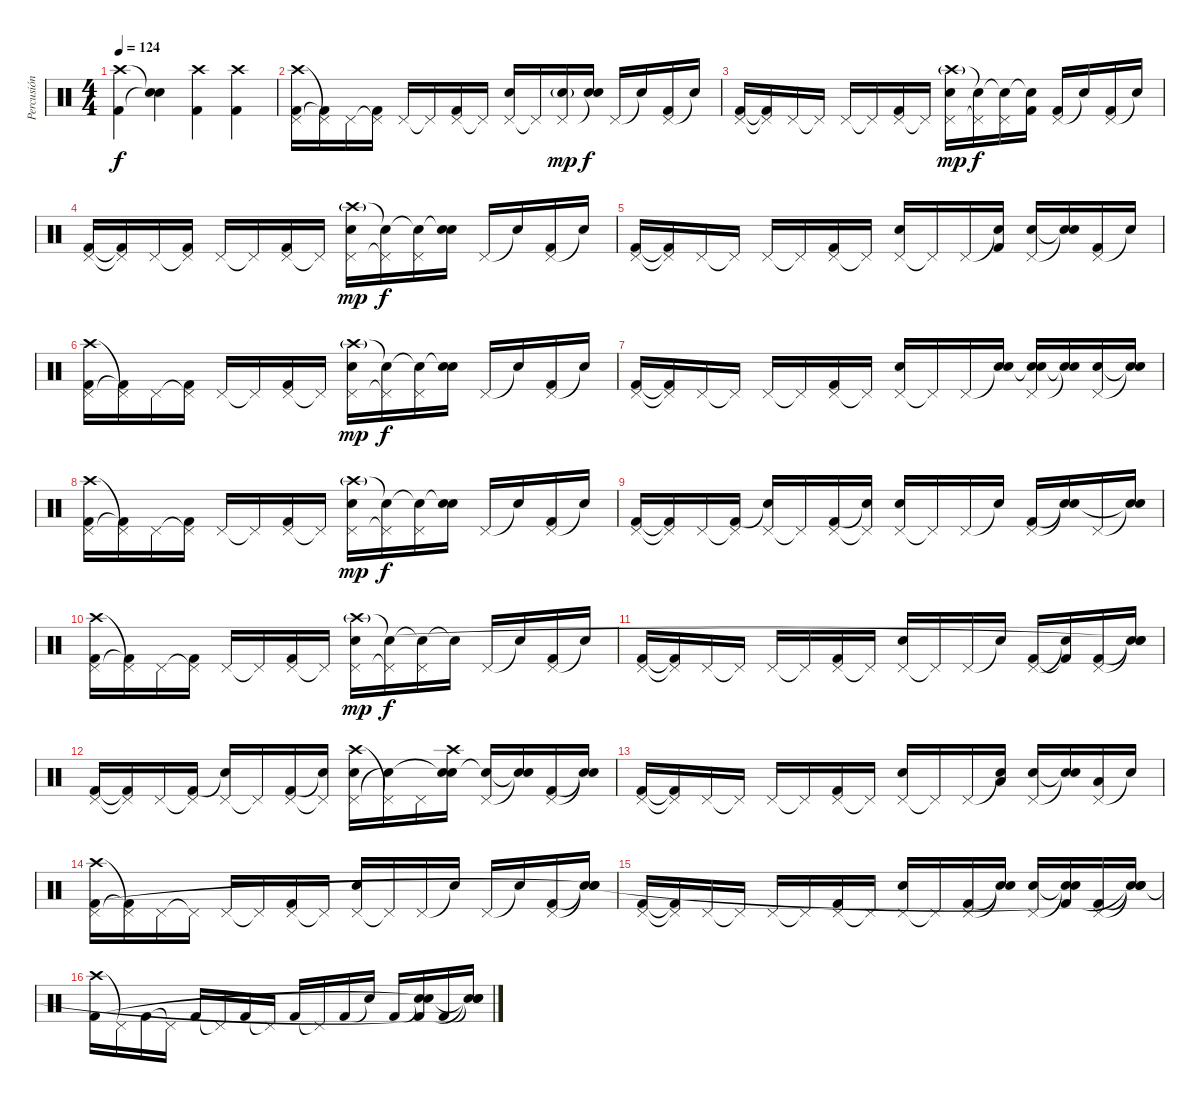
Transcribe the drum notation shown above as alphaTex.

\track ("Percusión" "Percusión") {instrument percussion}
\staff {score}
\articulation defaults
\ts (4 4)
\tempo 124
\clef neutral
\ks c
("Crash high (hit)" "Kick (hit) 2").4{dy f} ("Snare (hit)"{t} "Snare (hit)"{t}).4 ("Crash high (hit)" "Kick (hit) 2").4 ("Crash high (hit)" "Kick (hit) 2").4 |
("Crash high (hit)" "Pedal Hi-Hat (hit)" "Kick (hit) 2").16 ("Pedal Hi-Hat (hit)"{t} "Kick (hit) 2"{t}).16 "Pedal Hi-Hat (hit)".16 ("Pedal Hi-Hat (hit)"{t} "Kick (hit) 2").16 "Pedal Hi-Hat (hit)".16 "Pedal Hi-Hat (hit)"{t}.16 ("Pedal Hi-Hat (hit)" "Kick (hit) 2").16 "Pedal Hi-Hat (hit)"{t}.16 ("Pedal Hi-Hat (hit)" "Snare (hit) 2").16 "Pedal Hi-Hat (hit)"{t}.16 ("Pedal Hi-Hat (hit)" "Snare (hit) 2"{g}).16{dy mp} ("Snare (hit)"{t} "Snare (hit) 2").16{dy f} "Pedal Hi-Hat (hit)".16 "Snare (hit)"{t}.16 ("Pedal Hi-Hat (hit)" "Kick (hit) 2").16 "Snare (hit)"{t}.16 |
("Pedal Hi-Hat (hit)" "Kick (hit) 2").16 ("Pedal Hi-Hat (hit)"{t} "Kick (hit) 2"{t}).16 "Pedal Hi-Hat (hit)".16 "Pedal Hi-Hat (hit)"{t}.16 "Pedal Hi-Hat (hit)".16 "Pedal Hi-Hat (hit)"{t}.16 ("Pedal Hi-Hat (hit)" "Kick (hit) 2").16 "Pedal Hi-Hat (hit)"{t}.16 ("Crash high (hit)"{g} "Pedal Hi-Hat (hit)" "Snare (hit) 2").16{dy mp} ("Snare (hit)"{t} "Pedal Hi-Hat (hit)"{t}).16{dy f} ("Snare (hit)"{t} "Pedal Hi-Hat (hit)").16 ("Snare (hit)"{t} "Kick (hit) 2").16 ("Pedal Hi-Hat (hit)" "Kick (hit) 2").16 "Snare (hit)"{t}.16 ("Pedal Hi-Hat (hit)" "Kick (hit) 2").16 "Snare (hit)"{t}.16 |
("Pedal Hi-Hat (hit)" "Kick (hit) 2").16 ("Pedal Hi-Hat (hit)"{t} "Kick (hit) 2"{t}).16 "Pedal Hi-Hat (hit)".16 ("Pedal Hi-Hat (hit)"{t} "Kick (hit) 2").16 "Pedal Hi-Hat (hit)".16 "Pedal Hi-Hat (hit)"{t}.16 ("Pedal Hi-Hat (hit)" "Kick (hit) 2").16 "Pedal Hi-Hat (hit)"{t}.16 ("Crash high (hit)"{g} "Pedal Hi-Hat (hit)" "Snare (hit) 2").16{dy mp} ("Snare (hit)"{t} "Pedal Hi-Hat (hit)"{t}).16{dy f} ("Snare (hit)"{t} "Pedal Hi-Hat (hit)").16 ("Snare (hit)"{t} "Snare (hit) 2").16 "Pedal Hi-Hat (hit)".16 "Snare (hit)"{t}.16 ("Pedal Hi-Hat (hit)" "Kick (hit) 2").16 "Snare (hit)"{t}.16 |
("Pedal Hi-Hat (hit)" "Kick (hit) 2").16 ("Pedal Hi-Hat (hit)"{t} "Kick (hit) 2"{t}).16 "Pedal Hi-Hat (hit)".16 "Pedal Hi-Hat (hit)"{t}.16 "Pedal Hi-Hat (hit)".16 "Pedal Hi-Hat (hit)"{t}.16 ("Pedal Hi-Hat (hit)" "Kick (hit) 2").16 "Pedal Hi-Hat (hit)"{t}.16 ("Pedal Hi-Hat (hit)" "Snare (hit) 2").16 "Pedal Hi-Hat (hit)"{t}.16 "Pedal Hi-Hat (hit)".16 ("Snare (hit)"{t} "Kick (hit) 2").16 ("Pedal Hi-Hat (hit)" "Snare (hit) 2").16 ("Snare (hit)"{t} "Snare (hit) 2"{t}).16 ("Pedal Hi-Hat (hit)" "Kick (hit) 2").16 "Snare (hit)"{t}.16 |
("Crash high (hit)" "Pedal Hi-Hat (hit)" "Kick (hit) 2").16 ("Pedal Hi-Hat (hit)"{t} "Kick (hit) 2"{t}).16 "Pedal Hi-Hat (hit)".16 ("Pedal Hi-Hat (hit)"{t} "Kick (hit) 2").16 "Pedal Hi-Hat (hit)".16 "Pedal Hi-Hat (hit)"{t}.16 ("Pedal Hi-Hat (hit)" "Kick (hit) 2").16 "Pedal Hi-Hat (hit)"{t}.16 ("Crash high (hit)"{g} "Pedal Hi-Hat (hit)" "Snare (hit) 2").16{dy mp} ("Snare (hit)"{t} "Pedal Hi-Hat (hit)"{t}).16{dy f} ("Snare (hit)"{t} "Pedal Hi-Hat (hit)").16 ("Snare (hit)"{t} "Snare (hit) 2").16 "Pedal Hi-Hat (hit)".16 "Snare (hit)"{t}.16 ("Pedal Hi-Hat (hit)" "Kick (hit) 2").16 "Snare (hit)"{t}.16 |
("Pedal Hi-Hat (hit)" "Kick (hit) 2").16 ("Pedal Hi-Hat (hit)"{t} "Kick (hit) 2"{t}).16 "Pedal Hi-Hat (hit)".16 "Pedal Hi-Hat (hit)"{t}.16 "Pedal Hi-Hat (hit)".16 "Pedal Hi-Hat (hit)"{t}.16 ("Pedal Hi-Hat (hit)" "Kick (hit) 2").16 "Pedal Hi-Hat (hit)"{t}.16 ("Pedal Hi-Hat (hit)" "Snare (hit) 2").16 "Pedal Hi-Hat (hit)"{t}.16 "Pedal Hi-Hat (hit)".16 ("Snare (hit)"{t} "Snare (hit) 2").16 ("Pedal Hi-Hat (hit)" "Snare (hit)"{t} "Snare (hit) 2").16 ("Snare (hit)"{t} "Snare (hit) 2"{t}).16 ("Pedal Hi-Hat (hit)" "Snare (hit) 2").16 ("Snare (hit)"{t} "Snare (hit)"{t}).16 |
("Crash high (hit)" "Pedal Hi-Hat (hit)" "Kick (hit) 2").16 ("Pedal Hi-Hat (hit)"{t} "Kick (hit) 2"{t}).16 "Pedal Hi-Hat (hit)".16 ("Pedal Hi-Hat (hit)"{t} "Kick (hit) 2").16 "Pedal Hi-Hat (hit)".16 "Pedal Hi-Hat (hit)"{t}.16 ("Pedal Hi-Hat (hit)" "Kick (hit) 2").16 "Pedal Hi-Hat (hit)"{t}.16 ("Crash high (hit)"{g} "Pedal Hi-Hat (hit)" "Snare (hit) 2").16{dy mp} ("Snare (hit)"{t} "Pedal Hi-Hat (hit)"{t}).16{dy f} ("Snare (hit)"{t} "Pedal Hi-Hat (hit)").16 ("Snare (hit)"{t} "Snare (hit) 2").16 "Pedal Hi-Hat (hit)".16 "Snare (hit)"{t}.16 ("Pedal Hi-Hat (hit)" "Kick (hit) 2").16 "Snare (hit)"{t}.16 |
("Pedal Hi-Hat (hit)" "Kick (hit) 2").16 ("Pedal Hi-Hat (hit)"{t} "Kick (hit) 2"{t}).16 "Pedal Hi-Hat (hit)".16 ("Pedal Hi-Hat (hit)"{t} "Kick (hit) 2").16 ("Pedal Hi-Hat (hit)" "Snare (hit)"{t}).16 "Pedal Hi-Hat (hit)"{t}.16 ("Pedal Hi-Hat (hit)" "Kick (hit) 2").16 ("Pedal Hi-Hat (hit)"{t} "Snare (hit)"{t}).16 ("Pedal Hi-Hat (hit)" "Snare (hit) 2").16 "Pedal Hi-Hat (hit)"{t}.16 "Pedal Hi-Hat (hit)".16 "Snare (hit)"{t}.16 ("Pedal Hi-Hat (hit)" "Kick (hit) 2").16 ("Snare (hit)"{t} "Snare (hit) 2"{t}).16 "Pedal Hi-Hat (hit)".16 ("Snare (hit)"{t} "Snare (hit)"{t}).16 |
("Crash high (hit)" "Pedal Hi-Hat (hit)" "Kick (hit) 2").16 ("Pedal Hi-Hat (hit)"{t} "Kick (hit) 2"{t}).16 "Pedal Hi-Hat (hit)".16 ("Pedal Hi-Hat (hit)"{t} "Kick (hit) 2").16 "Pedal Hi-Hat (hit)".16 "Pedal Hi-Hat (hit)"{t}.16 ("Pedal Hi-Hat (hit)" "Kick (hit) 2").16 "Pedal Hi-Hat (hit)"{t}.16 ("Crash high (hit)"{g} "Pedal Hi-Hat (hit)" "Snare (hit) 2").16{dy mp} ("Snare (hit)"{t} "Pedal Hi-Hat (hit)"{t}).16{dy f} ("Snare (hit)"{t} "Pedal Hi-Hat (hit)").16 "Snare (hit)"{t}.16 "Pedal Hi-Hat (hit)".16 "Snare (hit)"{t}.16 ("Pedal Hi-Hat (hit)" "Kick (hit) 2").16 "Snare (hit)"{t}.16 |
("Pedal Hi-Hat (hit)" "Kick (hit) 2").16 ("Pedal Hi-Hat (hit)"{t} "Kick (hit) 2"{t}).16 "Pedal Hi-Hat (hit)".16 "Pedal Hi-Hat (hit)"{t}.16 "Pedal Hi-Hat (hit)".16 "Pedal Hi-Hat (hit)"{t}.16 ("Pedal Hi-Hat (hit)" "Kick (hit) 2").16 "Pedal Hi-Hat (hit)"{t}.16 ("Pedal Hi-Hat (hit)" "Snare (hit) 2").16 "Pedal Hi-Hat (hit)"{t}.16 "Pedal Hi-Hat (hit)".16 "Snare (hit)"{t}.16 ("Pedal Hi-Hat (hit)" "Kick (hit) 2").16 ("Snare (hit)"{t} "Kick (hit) 2"{t}).16 ("Pedal Hi-Hat (hit)" "Kick (hit) 2").16 ("Snare (hit)"{t} "Snare (hit)"{t} "Snare (hit)"{t}).16 |
("Pedal Hi-Hat (hit)" "Kick (hit) 2").16 ("Pedal Hi-Hat (hit)"{t} "Kick (hit) 2"{t}).16 "Pedal Hi-Hat (hit)".16 ("Pedal Hi-Hat (hit)"{t} "Kick (hit) 2").16 ("Pedal Hi-Hat (hit)" "Snare (hit)"{t}).16 "Pedal Hi-Hat (hit)"{t}.16 ("Pedal Hi-Hat (hit)" "Kick (hit) 2").16 ("Pedal Hi-Hat (hit)"{t} "Snare (hit)"{t}).16 ("Crash high (hit)" "Pedal Hi-Hat (hit)" "Snare (hit) 2").16 ("Pedal Hi-Hat (hit)"{t} "Snare (hit)"{t}).16 "Pedal Hi-Hat (hit)".16 ("Crash high (hit)" "Snare (hit)"{t} "Snare (hit) 2").16 ("Pedal Hi-Hat (hit)" "Snare (hit)"{t}).16 ("Snare (hit)"{t} "Snare (hit) 2"{t}).16 ("Pedal Hi-Hat (hit)" "Kick (hit) 2").16 ("Snare (hit)"{t} "Snare (hit)"{t}).16 |
("Pedal Hi-Hat (hit)" "Kick (hit) 2").16 ("Pedal Hi-Hat (hit)"{t} "Kick (hit) 2"{t}).16 "Pedal Hi-Hat (hit)".16 "Pedal Hi-Hat (hit)"{t}.16 "Pedal Hi-Hat (hit)".16 "Pedal Hi-Hat (hit)"{t}.16 ("Pedal Hi-Hat (hit)" "Kick (hit) 2").16 "Pedal Hi-Hat (hit)"{t}.16 ("Pedal Hi-Hat (hit)" "Snare (hit) 2").16 "Pedal Hi-Hat (hit)"{t}.16 "Pedal Hi-Hat (hit)".16 ("Snare (hit)"{t} "Low Tom (hit)").16 ("Pedal Hi-Hat (hit)" "Snare (hit) 2").16 ("Snare (hit)"{t} "Snare (hit) 2"{t}).16 ("Pedal Hi-Hat (hit)" "Low Tom (hit)").16 "Snare (hit)"{t}.16 |
("Crash high (hit)" "Pedal Hi-Hat (hit)" "Kick (hit) 2").16 ("Pedal Hi-Hat (hit)"{t} "Kick (hit) 2"{t}).16 "Pedal Hi-Hat (hit)".16 "Pedal Hi-Hat (hit)"{t}.16 "Pedal Hi-Hat (hit)".16 "Pedal Hi-Hat (hit)"{t}.16 ("Pedal Hi-Hat (hit)" "Kick (hit) 2").16 "Pedal Hi-Hat (hit)"{t}.16 ("Pedal Hi-Hat (hit)" "Snare (hit) 2").16 "Pedal Hi-Hat (hit)"{t}.16 "Pedal Hi-Hat (hit)".16 "Snare (hit)"{t}.16 "Pedal Hi-Hat (hit)".16 "Snare (hit)"{t}.16 ("Pedal Hi-Hat (hit)" "Kick (hit) 2").16 ("Snare (hit)"{t} "Snare (hit)"{t} "Snare (hit)"{t}).16 |
("Pedal Hi-Hat (hit)" "Kick (hit) 2").16 ("Pedal Hi-Hat (hit)"{t} "Kick (hit) 2"{t}).16 "Pedal Hi-Hat (hit)".16 "Pedal Hi-Hat (hit)"{t}.16 "Pedal Hi-Hat (hit)".16 "Pedal Hi-Hat (hit)"{t}.16 ("Pedal Hi-Hat (hit)" "Kick (hit) 2").16 "Pedal Hi-Hat (hit)"{t}.16 ("Pedal Hi-Hat (hit)" "Snare (hit) 2").16 "Pedal Hi-Hat (hit)"{t}.16 ("Pedal Hi-Hat (hit)" "Kick (hit) 2").16 ("Snare (hit)"{t} "Snare (hit)"{t}).16 ("Pedal Hi-Hat (hit)" "Snare (hit) 2").16 ("Snare (hit)"{t} "Snare (hit)"{t} "Kick (hit) 2"{t}).16 ("Pedal Hi-Hat (hit)" "Kick (hit) 2").16 ("Snare (hit)"{t} "Snare (hit)"{t} "Snare (hit)"{t}).16 |
("Crash high (hit)" "Kick (hit) 2").16 "Pedal Hi-Hat (hit)"{t}.16 "Kick (hit) 2".16 "Pedal Hi-Hat (hit)"{t}.16 "Kick (hit) 2".16 "Pedal Hi-Hat (hit)"{t}.16 "Kick (hit) 2".16 "Pedal Hi-Hat (hit)"{t}.16 "Kick (hit) 2".16 "Pedal Hi-Hat (hit)"{t}.16 "Kick (hit) 2".16 "Snare (hit)"{t}.16 "Kick (hit) 2".16 ("Snare (hit)"{t} "Snare (hit)"{t} "Kick (hit) 2"{t}).16 "Kick (hit) 2".16 ("Snare (hit)"{t} "Snare (hit)"{t} "Snare (hit)"{t}).16
